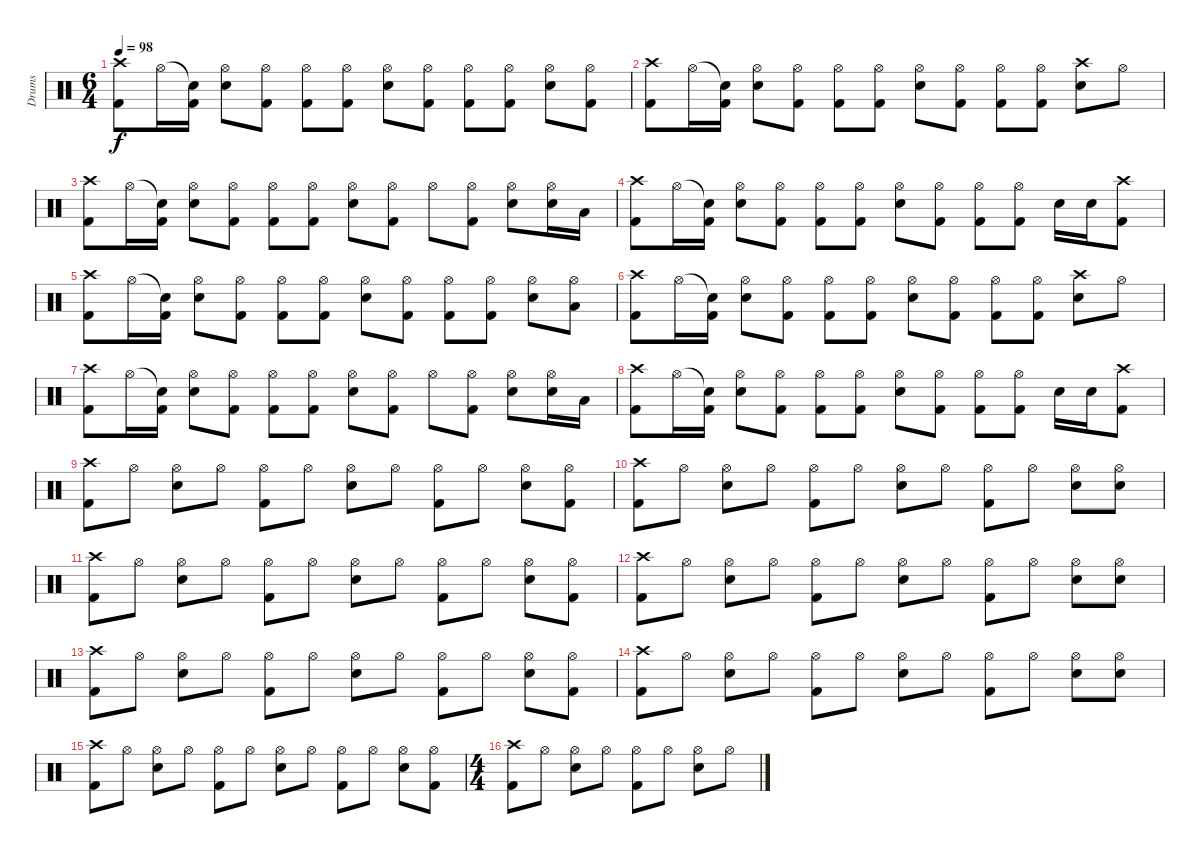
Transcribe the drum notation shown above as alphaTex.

\track ("Drums" "Drums") {instrument percussion}
\staff {score}
\articulation defaults
\ts (6 4)
\tempo 98
\clef neutral
\ks c
("Crash high (hit)" "Kick (hit) 2").8{dy f} "Hi-Hat (open)".16 ("Snare (hit)"{t} "Kick (hit) 2").16 ("Hi-Hat (open)" "Snare (hit) 2").8 ("Hi-Hat (open)" "Kick (hit) 2").8 ("Hi-Hat (open)" "Kick (hit) 2").8 ("Hi-Hat (open)" "Kick (hit) 2").8 ("Hi-Hat (open)" "Snare (hit) 2").8 ("Hi-Hat (open)" "Kick (hit) 2").8 ("Hi-Hat (open)" "Kick (hit) 2").8 ("Hi-Hat (open)" "Kick (hit) 2").8 ("Hi-Hat (open)" "Snare (hit) 2").8 ("Hi-Hat (open)" "Kick (hit) 2").8 |
("Crash high (hit)" "Kick (hit) 2").8 "Hi-Hat (open)".16 ("Snare (hit)"{t} "Kick (hit) 2").16 ("Hi-Hat (open)" "Snare (hit) 2").8 ("Hi-Hat (open)" "Kick (hit) 2").8 ("Hi-Hat (open)" "Kick (hit) 2").8 ("Hi-Hat (open)" "Kick (hit) 2").8 ("Hi-Hat (open)" "Snare (hit) 2").8 ("Hi-Hat (open)" "Kick (hit) 2").8 ("Hi-Hat (open)" "Kick (hit) 2").8 ("Hi-Hat (open)" "Kick (hit) 2").8 ("Crash high (hit)" "Snare (hit) 2").8 "Hi-Hat (open)".8 |
("Crash high (hit)" "Kick (hit) 2").8 "Hi-Hat (open)".16 ("Snare (hit)"{t} "Kick (hit) 2").16 ("Hi-Hat (open)" "Snare (hit) 2").8 ("Hi-Hat (open)" "Kick (hit) 2").8 ("Hi-Hat (open)" "Kick (hit) 2").8 ("Hi-Hat (open)" "Kick (hit) 2").8 ("Hi-Hat (open)" "Snare (hit) 2").8 ("Hi-Hat (open)" "Kick (hit) 2").8 "Hi-Hat (open)".8 ("Hi-Hat (open)" "Kick (hit) 2").8 ("Hi-Hat (open)" "Snare (hit) 2").8 ("Hi-Hat (open)" "Snare (hit) 2").16 "Low Tom (hit)".16 |
("Crash high (hit)" "Kick (hit) 2").8 "Hi-Hat (open)".16 ("Snare (hit)"{t} "Kick (hit) 2").16 ("Hi-Hat (open)" "Snare (hit) 2").8 ("Hi-Hat (open)" "Kick (hit) 2").8 ("Hi-Hat (open)" "Kick (hit) 2").8 ("Hi-Hat (open)" "Kick (hit) 2").8 ("Hi-Hat (open)" "Snare (hit) 2").8 ("Hi-Hat (open)" "Kick (hit) 2").8 ("Hi-Hat (open)" "Kick (hit) 2").8 ("Hi-Hat (open)" "Kick (hit) 2").8 "Snare (hit) 2".16 "Snare (hit) 2".16 ("Crash high (hit)" "Kick (hit) 2").8 |
("Crash high (hit)" "Kick (hit) 2").8 "Hi-Hat (open)".16 ("Snare (hit)"{t} "Kick (hit) 2").16 ("Hi-Hat (open)" "Snare (hit) 2").8 ("Hi-Hat (open)" "Kick (hit) 2").8 ("Hi-Hat (open)" "Kick (hit) 2").8 ("Hi-Hat (open)" "Kick (hit) 2").8 ("Hi-Hat (open)" "Snare (hit) 2").8 ("Hi-Hat (open)" "Kick (hit) 2").8 ("Hi-Hat (open)" "Kick (hit) 2").8 ("Hi-Hat (open)" "Kick (hit) 2").8 ("Hi-Hat (open)" "Snare (hit) 2").8 ("Hi-Hat (open)" "Low Tom (hit)").8 |
("Crash high (hit)" "Kick (hit) 2").8 "Hi-Hat (open)".16 ("Snare (hit)"{t} "Kick (hit) 2").16 ("Hi-Hat (open)" "Snare (hit) 2").8 ("Hi-Hat (open)" "Kick (hit) 2").8 ("Hi-Hat (open)" "Kick (hit) 2").8 ("Hi-Hat (open)" "Kick (hit) 2").8 ("Hi-Hat (open)" "Snare (hit) 2").8 ("Hi-Hat (open)" "Kick (hit) 2").8 ("Hi-Hat (open)" "Kick (hit) 2").8 ("Hi-Hat (open)" "Kick (hit) 2").8 ("Crash high (hit)" "Snare (hit) 2").8 "Hi-Hat (open)".8 |
("Crash high (hit)" "Kick (hit) 2").8 "Hi-Hat (open)".16 ("Snare (hit)"{t} "Kick (hit) 2").16 ("Hi-Hat (open)" "Snare (hit) 2").8 ("Hi-Hat (open)" "Kick (hit) 2").8 ("Hi-Hat (open)" "Kick (hit) 2").8 ("Hi-Hat (open)" "Kick (hit) 2").8 ("Hi-Hat (open)" "Snare (hit) 2").8 ("Hi-Hat (open)" "Kick (hit) 2").8 "Hi-Hat (open)".8 ("Hi-Hat (open)" "Kick (hit) 2").8 ("Hi-Hat (open)" "Snare (hit) 2").8 ("Hi-Hat (open)" "Snare (hit) 2").16 "Low Tom (hit)".16 |
("Crash high (hit)" "Kick (hit) 2").8 "Hi-Hat (open)".16 ("Snare (hit)"{t} "Kick (hit) 2").16 ("Hi-Hat (open)" "Snare (hit) 2").8 ("Hi-Hat (open)" "Kick (hit) 2").8 ("Hi-Hat (open)" "Kick (hit) 2").8 ("Hi-Hat (open)" "Kick (hit) 2").8 ("Hi-Hat (open)" "Snare (hit) 2").8 ("Hi-Hat (open)" "Kick (hit) 2").8 ("Hi-Hat (open)" "Kick (hit) 2").8 ("Hi-Hat (open)" "Kick (hit) 2").8 "Snare (hit) 2".16 "Snare (hit) 2".16 ("Crash high (hit)" "Kick (hit) 2").8 |
("Crash high (hit)" "Kick (hit) 2").8 "Hi-Hat (open)".8 ("Hi-Hat (open)" "Snare (hit) 2").8 "Hi-Hat (open)".8 ("Hi-Hat (open)" "Kick (hit) 2").8 "Hi-Hat (open)".8 ("Hi-Hat (open)" "Snare (hit) 2").8 "Hi-Hat (open)".8 ("Hi-Hat (open)" "Kick (hit) 2").8 "Hi-Hat (open)".8 ("Hi-Hat (open)" "Snare (hit) 2").8 ("Hi-Hat (open)" "Kick (hit) 2").8 |
("Crash high (hit)" "Kick (hit) 2").8 "Hi-Hat (open)".8 ("Hi-Hat (open)" "Snare (hit) 2").8 "Hi-Hat (open)".8 ("Hi-Hat (open)" "Kick (hit) 2").8 "Hi-Hat (open)".8 ("Hi-Hat (open)" "Snare (hit) 2").8 "Hi-Hat (open)".8 ("Hi-Hat (open)" "Kick (hit) 2").8 "Hi-Hat (open)".8 ("Hi-Hat (open)" "Snare (hit) 2").8 ("Hi-Hat (open)" "Snare (hit) 2").8 |
("Crash high (hit)" "Kick (hit) 2").8 "Hi-Hat (open)".8 ("Hi-Hat (open)" "Snare (hit) 2").8 "Hi-Hat (open)".8 ("Hi-Hat (open)" "Kick (hit) 2").8 "Hi-Hat (open)".8 ("Hi-Hat (open)" "Snare (hit) 2").8 "Hi-Hat (open)".8 ("Hi-Hat (open)" "Kick (hit) 2").8 "Hi-Hat (open)".8 ("Hi-Hat (open)" "Snare (hit) 2").8 ("Hi-Hat (open)" "Kick (hit) 2").8 |
("Crash high (hit)" "Kick (hit) 2").8 "Hi-Hat (open)".8 ("Hi-Hat (open)" "Snare (hit) 2").8 "Hi-Hat (open)".8 ("Hi-Hat (open)" "Kick (hit) 2").8 "Hi-Hat (open)".8 ("Hi-Hat (open)" "Snare (hit) 2").8 "Hi-Hat (open)".8 ("Hi-Hat (open)" "Kick (hit) 2").8 "Hi-Hat (open)".8 ("Hi-Hat (open)" "Snare (hit) 2").8 ("Hi-Hat (open)" "Snare (hit) 2").8 |
("Crash high (hit)" "Kick (hit) 2").8 "Hi-Hat (open)".8 ("Hi-Hat (open)" "Snare (hit) 2").8 "Hi-Hat (open)".8 ("Hi-Hat (open)" "Kick (hit) 2").8 "Hi-Hat (open)".8 ("Hi-Hat (open)" "Snare (hit) 2").8 "Hi-Hat (open)".8 ("Hi-Hat (open)" "Kick (hit) 2").8 "Hi-Hat (open)".8 ("Hi-Hat (open)" "Snare (hit) 2").8 ("Hi-Hat (open)" "Kick (hit) 2").8 |
("Crash high (hit)" "Kick (hit) 2").8 "Hi-Hat (open)".8 ("Hi-Hat (open)" "Snare (hit) 2").8 "Hi-Hat (open)".8 ("Hi-Hat (open)" "Kick (hit) 2").8 "Hi-Hat (open)".8 ("Hi-Hat (open)" "Snare (hit) 2").8 "Hi-Hat (open)".8 ("Hi-Hat (open)" "Kick (hit) 2").8 "Hi-Hat (open)".8 ("Hi-Hat (open)" "Snare (hit) 2").8 ("Hi-Hat (open)" "Snare (hit) 2").8 |
("Crash high (hit)" "Kick (hit) 2").8 "Hi-Hat (open)".8 ("Hi-Hat (open)" "Snare (hit) 2").8 "Hi-Hat (open)".8 ("Hi-Hat (open)" "Kick (hit) 2").8 "Hi-Hat (open)".8 ("Hi-Hat (open)" "Snare (hit) 2").8 "Hi-Hat (open)".8 ("Hi-Hat (open)" "Kick (hit) 2").8 "Hi-Hat (open)".8 ("Hi-Hat (open)" "Snare (hit) 2").8 ("Hi-Hat (open)" "Kick (hit) 2").8 |
\ts (4 4)
("Crash high (hit)" "Kick (hit) 2").8 "Hi-Hat (open)".8 ("Hi-Hat (open)" "Snare (hit) 2").8 "Hi-Hat (open)".8 ("Hi-Hat (open)" "Kick (hit) 2").8 "Hi-Hat (open)".8 ("Hi-Hat (open)" "Snare (hit) 2").8 "Hi-Hat (open)".8
